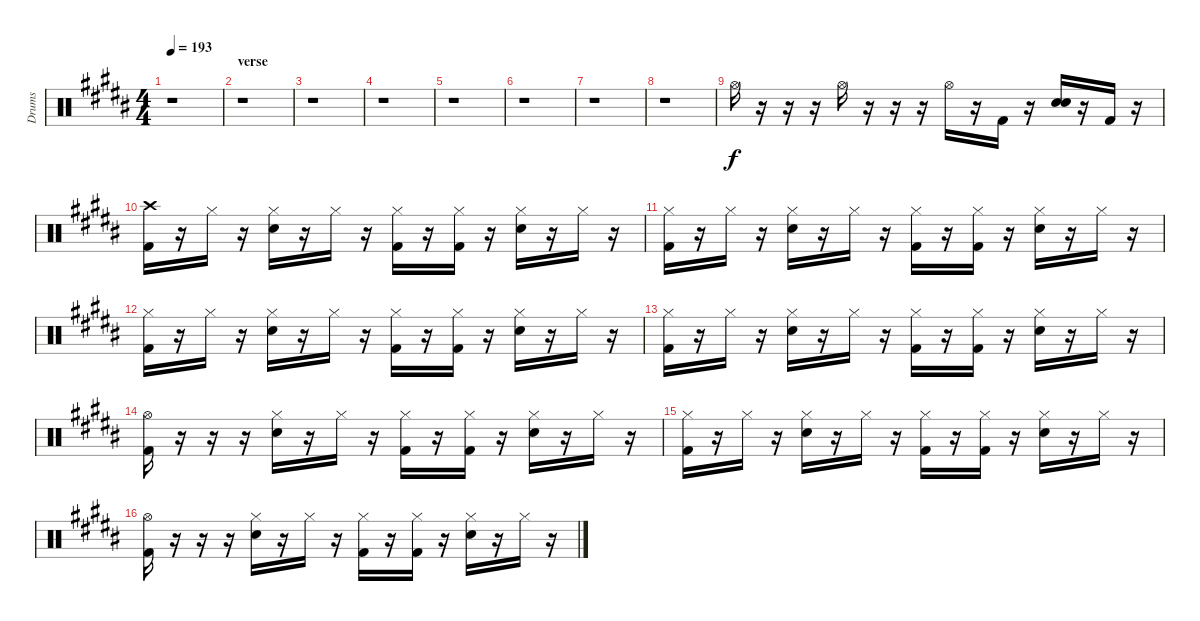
\track ("Drums" "Drums") {instrument percussion}
\staff {score}
\articulation defaults
\ts (4 4)
\tempo 193
\clef neutral
\ks b
r.1{dy f} |
\section ("" "verse")
r.1 |
r.1 |
r.1 |
r.1 |
r.1 |
r.1 |
r.1 |
"Hi-Hat (open)".16 r.16 r.16 r.16 "Hi-Hat (open)".16 r.16 r.16 r.16 "Hi-Hat (open)".16 r.16 "Kick (hit) 2".16 r.16 ("Electric Snare (hit)" "Electric Snare (hit)").16 r.16 "Kick (hit) 2".16 r.16 |
("Crash high (hit)" "Kick (hit) 2").16 r.16 "Hi-Hat (closed)".16 r.16 ("Electric Snare (hit)" "Hi-Hat (closed)").16 r.16 "Hi-Hat (closed)".16 r.16 ("Hi-Hat (closed)" "Kick (hit) 2").16 r.16 ("Hi-Hat (closed)" "Kick (hit) 2").16 r.16 ("Electric Snare (hit)" "Hi-Hat (closed)").16 r.16 "Hi-Hat (closed)".16 r.16 |
("Hi-Hat (closed)" "Kick (hit) 2").16 r.16 "Hi-Hat (closed)".16 r.16 ("Electric Snare (hit)" "Hi-Hat (closed)").16 r.16 "Hi-Hat (closed)".16 r.16 ("Hi-Hat (closed)" "Kick (hit) 2").16 r.16 ("Hi-Hat (closed)" "Kick (hit) 2").16 r.16 ("Electric Snare (hit)" "Hi-Hat (closed)").16 r.16 "Hi-Hat (closed)".16 r.16 |
("Hi-Hat (closed)" "Kick (hit) 2").16 r.16 "Hi-Hat (closed)".16 r.16 ("Electric Snare (hit)" "Hi-Hat (closed)").16 r.16 "Hi-Hat (closed)".16 r.16 ("Hi-Hat (closed)" "Kick (hit) 2").16 r.16 ("Hi-Hat (closed)" "Kick (hit) 2").16 r.16 ("Electric Snare (hit)" "Hi-Hat (closed)").16 r.16 "Hi-Hat (closed)".16 r.16 |
("Hi-Hat (closed)" "Kick (hit) 2").16 r.16 "Hi-Hat (closed)".16 r.16 ("Electric Snare (hit)" "Hi-Hat (closed)").16 r.16 "Hi-Hat (closed)".16 r.16 ("Hi-Hat (closed)" "Kick (hit) 2").16 r.16 ("Hi-Hat (closed)" "Kick (hit) 2").16 r.16 ("Electric Snare (hit)" "Hi-Hat (closed)").16 r.16 "Hi-Hat (closed)".16 r.16 |
("Hi-Hat (open)" "Kick (hit) 2").16 r.16 r.16 r.16 ("Electric Snare (hit)" "Hi-Hat (closed)").16 r.16 "Hi-Hat (closed)".16 r.16 ("Hi-Hat (closed)" "Kick (hit) 2").16 r.16 ("Hi-Hat (closed)" "Kick (hit) 2").16 r.16 ("Electric Snare (hit)" "Hi-Hat (closed)").16 r.16 "Hi-Hat (closed)".16 r.16 |
("Hi-Hat (closed)" "Kick (hit) 2").16 r.16 "Hi-Hat (closed)".16 r.16 ("Electric Snare (hit)" "Hi-Hat (closed)").16 r.16 "Hi-Hat (closed)".16 r.16 ("Hi-Hat (closed)" "Kick (hit) 2").16 r.16 ("Hi-Hat (closed)" "Kick (hit) 2").16 r.16 ("Electric Snare (hit)" "Hi-Hat (closed)").16 r.16 "Hi-Hat (closed)".16 r.16 |
("Hi-Hat (open)" "Kick (hit) 2").16 r.16 r.16 r.16 ("Electric Snare (hit)" "Hi-Hat (closed)").16 r.16 "Hi-Hat (closed)".16 r.16 ("Hi-Hat (closed)" "Kick (hit) 2").16 r.16 ("Hi-Hat (closed)" "Kick (hit) 2").16 r.16 ("Electric Snare (hit)" "Hi-Hat (closed)").16 r.16 "Hi-Hat (closed)".16 r.16
